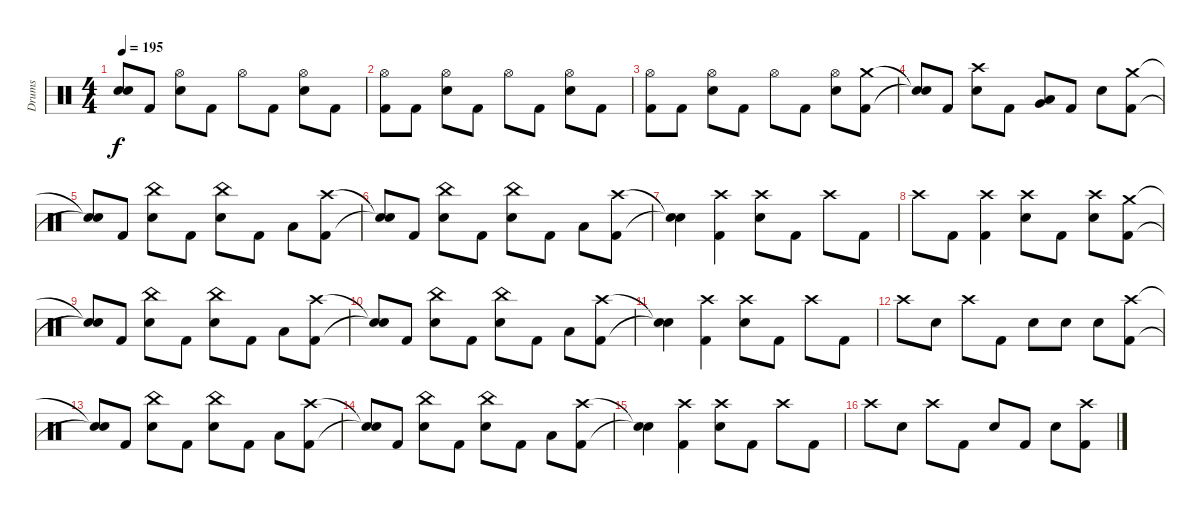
\track ("Drums" "Drums") {instrument percussion}
\staff {score}
\articulation defaults
\ts (4 4)
\tempo 195
\clef neutral
\ks c
("Snare (hit)"{t} "Snare (hit)"{t}).8{dy f} "Kick (hit) 2".8 ("Hi-Hat (open)" "Electric Snare (hit)").8 "Kick (hit) 2".8 "Hi-Hat (open)".8 "Kick (hit) 2".8 ("Hi-Hat (open)" "Electric Snare (hit)").8 "Kick (hit) 2".8 |
("Hi-Hat (open)" "Kick (hit) 2").8 "Kick (hit) 2".8 ("Hi-Hat (open)" "Electric Snare (hit)").8 "Kick (hit) 2".8 "Hi-Hat (open)".8 "Kick (hit) 2".8 ("Hi-Hat (open)" "Electric Snare (hit)").8 "Kick (hit) 2".8 |
("Hi-Hat (open)" "Kick (hit) 2").8 "Kick (hit) 2".8 ("Hi-Hat (open)" "Electric Snare (hit)").8 "Kick (hit) 2".8 "Hi-Hat (open)".8 "Kick (hit) 2".8 ("Hi-Hat (open)" "Electric Snare (hit)").8 ("Crash medium (hit)" "Kick (hit) 2").8 |
("Snare (hit)"{t} "Snare (hit)"{t}).8 "Kick (hit) 2".8 ("Crash high (hit)" "Electric Snare (hit)").8 "Kick (hit) 2".8 ("Low Tom (hit)" "Very Low Tom (hit)").8 "Kick (hit) 2".8 "Electric Snare (hit)".8 ("Crash medium (hit)" "Kick (hit) 2").8 |
("Snare (hit)"{t} "Snare (hit)"{t}).8 "Kick (hit) 2".8 ("China (hit)" "Electric Snare (hit)").8 "Kick (hit) 2".8 ("China (hit)" "Electric Snare (hit)").8 "Kick (hit) 2".8 "Low Tom (hit)".8 ("Crash high (hit)" "Kick (hit) 2").8 |
("Snare (hit)"{t} "Snare (hit)"{t}).8 "Kick (hit) 2".8 ("China (hit)" "Electric Snare (hit)").8 "Kick (hit) 2".8 ("China (hit)" "Electric Snare (hit)").8 "Kick (hit) 2".8 "Low Tom (hit)".8 ("Crash high (hit)" "Kick (hit) 2").8 |
("Snare (hit)"{t} "Snare (hit)"{t}).4 ("Crash high (hit)" "Kick (hit) 2").4 ("Crash high (hit)" "Electric Snare (hit)").8 "Kick (hit) 2".8 "Crash high (hit)".8 "Kick (hit) 2".8 |
"Crash high (hit)".8 "Kick (hit) 2".8 ("Crash high (hit)" "Kick (hit) 2").4 ("Crash high (hit)" "Electric Snare (hit)").8 "Kick (hit) 2".8 ("Crash high (hit)" "Electric Snare (hit)").8 ("Crash medium (hit)" "Kick (hit) 2").8 |
("Snare (hit)"{t} "Snare (hit)"{t}).8 "Kick (hit) 2".8 ("China (hit)" "Electric Snare (hit)").8 "Kick (hit) 2".8 ("China (hit)" "Electric Snare (hit)").8 "Kick (hit) 2".8 "Low Tom (hit)".8 ("Crash high (hit)" "Kick (hit) 2").8 |
("Snare (hit)"{t} "Snare (hit)"{t}).8 "Kick (hit) 2".8 ("China (hit)" "Electric Snare (hit)").8 "Kick (hit) 2".8 ("China (hit)" "Electric Snare (hit)").8 "Kick (hit) 2".8 "Low Tom (hit)".8 ("Crash high (hit)" "Kick (hit) 2").8 |
("Snare (hit)"{t} "Snare (hit)"{t}).4 ("Crash high (hit)" "Kick (hit) 2").4 ("Crash high (hit)" "Electric Snare (hit)").8 "Kick (hit) 2".8 "Crash high (hit)".8 "Kick (hit) 2".8 |
"Crash high (hit)".8 "Electric Snare (hit)".8 "Crash high (hit)".8 "Kick (hit) 2".8 "Electric Snare (hit)".8 "Electric Snare (hit)".8 "Electric Snare (hit)".8 ("Crash high (hit)" "Kick (hit) 2").8 |
("Snare (hit)"{t} "Snare (hit)"{t}).8 "Kick (hit) 2".8 ("China (hit)" "Electric Snare (hit)").8 "Kick (hit) 2".8 ("China (hit)" "Electric Snare (hit)").8 "Kick (hit) 2".8 "Low Tom (hit)".8 ("Crash high (hit)" "Kick (hit) 2").8 |
("Snare (hit)"{t} "Snare (hit)"{t}).8 "Kick (hit) 2".8 ("China (hit)" "Electric Snare (hit)").8 "Kick (hit) 2".8 ("China (hit)" "Electric Snare (hit)").8 "Kick (hit) 2".8 "Low Tom (hit)".8 ("Crash high (hit)" "Kick (hit) 2").8 |
("Snare (hit)"{t} "Snare (hit)"{t}).4 ("Crash high (hit)" "Kick (hit) 2").4 ("Crash high (hit)" "Electric Snare (hit)").8 "Kick (hit) 2".8 "Crash high (hit)".8 "Kick (hit) 2".8 |
"Crash high (hit)".8 "Electric Snare (hit)".8 "Crash high (hit)".8 "Kick (hit) 2".8 "Electric Snare (hit)".8 "Kick (hit) 2".8 "Electric Snare (hit)".8 ("Crash high (hit)" "Kick (hit) 2").8
